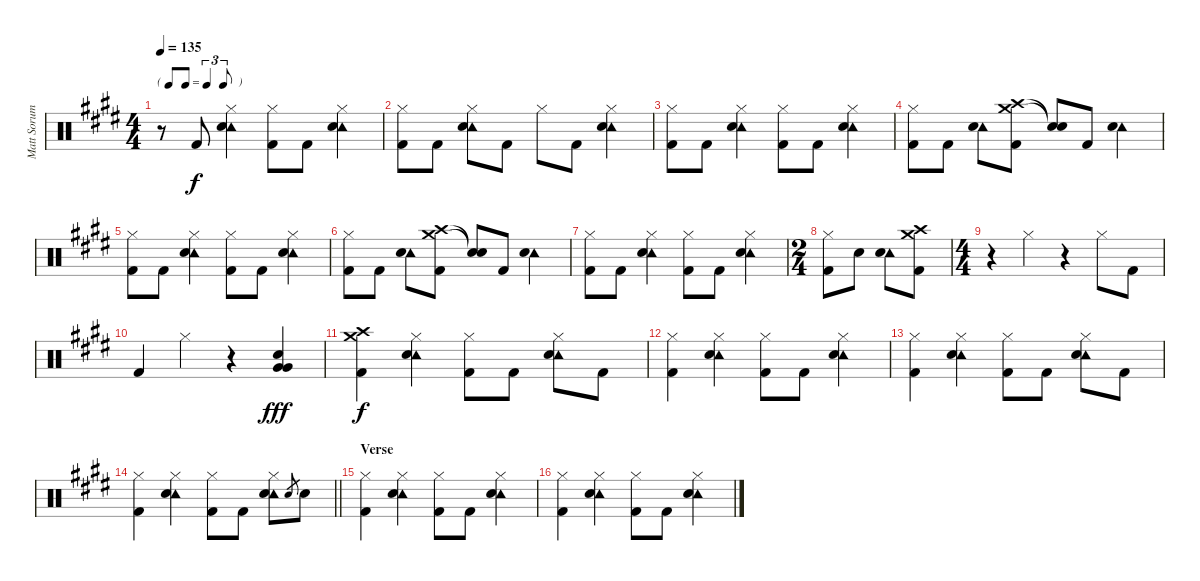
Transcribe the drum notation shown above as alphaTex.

\track ("Matt Sorum - Drums" "Matt Sorum") {instrument percussion}
\staff {score}
\articulation defaults
\ts (4 4)
\tf triplet8th
\tempo 135
\clef neutral
\ks e
r.8{dy f} "Kick (hit) 2".8 ("Hi-Hat (closed)" "Tambourine (hit)" "Snare (hit) 2").4 ("Hi-Hat (closed)" "Kick (hit) 2").8 "Kick (hit) 2".8 ("Hi-Hat (closed)" "Tambourine (hit)" "Snare (hit) 2").4 |
("Hi-Hat (closed)" "Kick (hit) 2").8 "Kick (hit) 2".8 ("Hi-Hat (closed)" "Tambourine (hit)" "Snare (hit) 2").8 "Kick (hit) 2".8 "Hi-Hat (closed)".8 "Kick (hit) 2".8 ("Hi-Hat (closed)" "Tambourine (hit)" "Snare (hit) 2").4 |
("Hi-Hat (closed)" "Kick (hit) 2").8 "Kick (hit) 2".8 ("Hi-Hat (closed)" "Tambourine (hit)" "Snare (hit) 2").4 ("Hi-Hat (closed)" "Kick (hit) 2").8 "Kick (hit) 2".8 ("Hi-Hat (closed)" "Tambourine (hit)" "Snare (hit) 2").4 |
("Hi-Hat (closed)" "Kick (hit) 2").8 "Kick (hit) 2".8 ("Tambourine (hit)" "Snare (hit) 2").8 ("Crash medium (hit)" "Crash high (hit)" "Kick (hit) 2").8 ("Snare (hit)"{t} "Snare (hit)"{t}).8 "Kick (hit) 2".8 ("Tambourine (hit)" "Snare (hit) 2").4 |
("Hi-Hat (closed)" "Kick (hit) 2").8 "Kick (hit) 2".8 ("Hi-Hat (closed)" "Tambourine (hit)" "Snare (hit) 2").4 ("Hi-Hat (closed)" "Kick (hit) 2").8 "Kick (hit) 2".8 ("Hi-Hat (closed)" "Tambourine (hit)" "Snare (hit) 2").4 |
("Hi-Hat (closed)" "Kick (hit) 2").8 "Kick (hit) 2".8 ("Tambourine (hit)" "Snare (hit) 2").8 ("Crash medium (hit)" "Crash high (hit)" "Kick (hit) 2").8 ("Snare (hit)"{t} "Snare (hit)"{t}).8 "Kick (hit) 2".8 ("Tambourine (hit)" "Snare (hit) 2").4 |
("Hi-Hat (closed)" "Kick (hit) 2").8 "Kick (hit) 2".8 ("Hi-Hat (closed)" "Tambourine (hit)" "Snare (hit) 2").4 ("Hi-Hat (closed)" "Kick (hit) 2").8 "Kick (hit) 2".8 ("Hi-Hat (closed)" "Tambourine (hit)" "Snare (hit) 2").4 |
\ts (2 4)
("Hi-Hat (closed)" "Kick (hit) 2").8 "Snare (hit) 2".8 ("Tambourine (hit)" "Snare (hit) 2").8 ("Crash medium (hit)" "Crash high (hit)" "Kick (hit) 2").8 |
\ts (4 4)
r.4 "Hi-Hat (closed)".4 r.4 "Hi-Hat (closed)".8 "Kick (hit) 2".8 |
"Kick (hit) 2".4 "Hi-Hat (closed)".4 r.4 ("Very Low Tom (hit)" "Very Low Tom (hit)" "Snare (hit) 2").4{dy fff} |
("Crash medium (hit)" "Crash high (hit)" "Kick (hit) 2").4{dy f} ("Hi-Hat (closed)" "Tambourine (hit)" "Snare (hit) 2").4 ("Hi-Hat (closed)" "Kick (hit) 2").8 "Kick (hit) 2".8 ("Hi-Hat (closed)" "Tambourine (hit)" "Snare (hit) 2").8 "Kick (hit) 2".8 |
("Hi-Hat (closed)" "Kick (hit) 2").4 ("Hi-Hat (closed)" "Tambourine (hit)" "Snare (hit) 2").4 ("Hi-Hat (closed)" "Kick (hit) 2").8 "Kick (hit) 2".8 ("Hi-Hat (closed)" "Tambourine (hit)" "Snare (hit) 2").4 |
("Hi-Hat (closed)" "Kick (hit) 2").4 ("Hi-Hat (closed)" "Tambourine (hit)" "Snare (hit) 2").4 ("Hi-Hat (closed)" "Kick (hit) 2").8 "Kick (hit) 2".8 ("Hi-Hat (closed)" "Tambourine (hit)" "Snare (hit) 2").8 "Kick (hit) 2".8 |
\barLineRight lightlight
("Hi-Hat (closed)" "Kick (hit) 2").4 ("Hi-Hat (closed)" "Tambourine (hit)" "Snare (hit) 2").4 ("Hi-Hat (closed)" "Kick (hit) 2").8 "Kick (hit) 2".8 ("Hi-Hat (closed)" "Tambourine (hit)" "Snare (hit) 2").8 "Snare (hit) 2".8{gr} "Snare (hit) 2".8 |
\section ("" "Verse")
("Hi-Hat (closed)" "Kick (hit) 2").4 ("Hi-Hat (closed)" "Tambourine (hit)" "Snare (hit) 2").4 ("Hi-Hat (closed)" "Kick (hit) 2").8 "Kick (hit) 2".8 ("Hi-Hat (closed)" "Tambourine (hit)" "Snare (hit) 2").4 |
("Hi-Hat (closed)" "Kick (hit) 2").4 ("Hi-Hat (closed)" "Tambourine (hit)" "Snare (hit) 2").4 ("Hi-Hat (closed)" "Kick (hit) 2").8 "Kick (hit) 2".8 ("Hi-Hat (closed)" "Tambourine (hit)" "Snare (hit) 2").4
